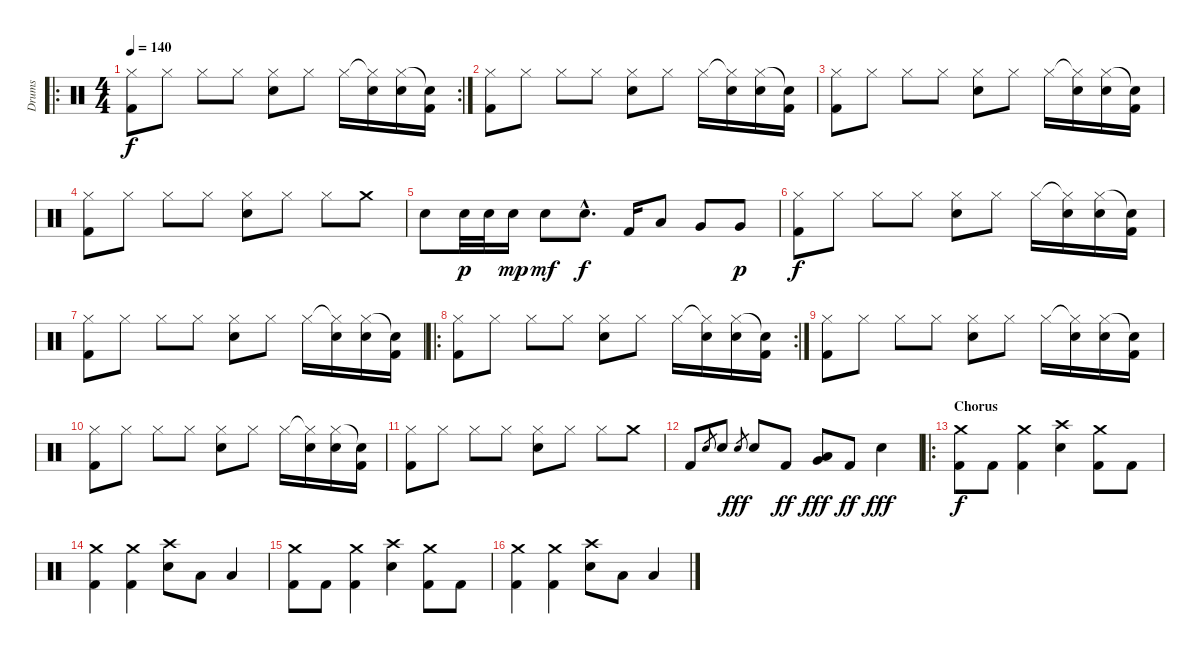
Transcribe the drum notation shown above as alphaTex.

\track ("Drums" "Drums") {instrument percussion}
\staff {score}
\articulation defaults
\ro
\rc 2
\ts (4 4)
\tempo 140
\clef neutral
\ks c
("Hi-Hat (closed)" "Kick (hit) 2").8{dy f} "Hi-Hat (closed)".8 "Hi-Hat (closed)".8 "Hi-Hat (closed)".8 ("Hi-Hat (closed)" "Electric Snare (hit)").8 "Hi-Hat (closed)".8 "Hi-Hat (closed)".16 ("Hi-Hat (closed)"{t} "Electric Snare (hit)").16 ("Hi-Hat (closed)" "Electric Snare (hit)").16 ("Snare (hit)"{t} "Kick (hit) 2").16 |
("Hi-Hat (closed)" "Kick (hit) 2").8 "Hi-Hat (closed)".8 "Hi-Hat (closed)".8 "Hi-Hat (closed)".8 ("Hi-Hat (closed)" "Electric Snare (hit)").8 "Hi-Hat (closed)".8 "Hi-Hat (closed)".16 ("Hi-Hat (closed)"{t} "Electric Snare (hit)").16 ("Hi-Hat (closed)" "Electric Snare (hit)").16 ("Snare (hit)"{t} "Kick (hit) 2").16 |
("Hi-Hat (closed)" "Kick (hit) 2").8 "Hi-Hat (closed)".8 "Hi-Hat (closed)".8 "Hi-Hat (closed)".8 ("Hi-Hat (closed)" "Electric Snare (hit)").8 "Hi-Hat (closed)".8 "Hi-Hat (closed)".16 ("Hi-Hat (closed)"{t} "Electric Snare (hit)").16 ("Hi-Hat (closed)" "Electric Snare (hit)").16 ("Snare (hit)"{t} "Kick (hit) 2").16 |
("Hi-Hat (closed)" "Kick (hit) 2").8 "Hi-Hat (closed)".8 "Hi-Hat (closed)".8 "Hi-Hat (closed)".8 ("Hi-Hat (closed)" "Electric Snare (hit)").8 "Hi-Hat (closed)".8 "Hi-Hat (closed)".8 "Crash medium (hit)".8 |
"Electric Snare (hit)".8 "Electric Snare (hit)".32{dy p} "Electric Snare (hit)".32 "Electric Snare (hit)".16{dy mp} "Electric Snare (hit)".8{dy mf} "Electric Snare (hit)"{hac}.8{d dy f} "Kick (hit) 2".16 "Low Tom (hit)".8 "Very Low Tom (hit)".8 "Very Low Tom (hit)".8{dy p} |
("Hi-Hat (closed)" "Kick (hit) 2").8{dy f} "Hi-Hat (closed)".8 "Hi-Hat (closed)".8 "Hi-Hat (closed)".8 ("Hi-Hat (closed)" "Electric Snare (hit)").8 "Hi-Hat (closed)".8 "Hi-Hat (closed)".16 ("Hi-Hat (closed)"{t} "Electric Snare (hit)").16 ("Hi-Hat (closed)" "Electric Snare (hit)").16 ("Snare (hit)"{t} "Kick (hit) 2").16 |
("Hi-Hat (closed)" "Kick (hit) 2").8 "Hi-Hat (closed)".8 "Hi-Hat (closed)".8 "Hi-Hat (closed)".8 ("Hi-Hat (closed)" "Electric Snare (hit)").8 "Hi-Hat (closed)".8 "Hi-Hat (closed)".16 ("Hi-Hat (closed)"{t} "Electric Snare (hit)").16 ("Hi-Hat (closed)" "Electric Snare (hit)").16 ("Snare (hit)"{t} "Kick (hit) 2").16 |
\ro
\rc 2
("Hi-Hat (closed)" "Kick (hit) 2").8 "Hi-Hat (closed)".8 "Hi-Hat (closed)".8 "Hi-Hat (closed)".8 ("Hi-Hat (closed)" "Electric Snare (hit)").8 "Hi-Hat (closed)".8 "Hi-Hat (closed)".16 ("Hi-Hat (closed)"{t} "Electric Snare (hit)").16 ("Hi-Hat (closed)" "Electric Snare (hit)").16 ("Snare (hit)"{t} "Kick (hit) 2").16 |
("Hi-Hat (closed)" "Kick (hit) 2").8 "Hi-Hat (closed)".8 "Hi-Hat (closed)".8 "Hi-Hat (closed)".8 ("Hi-Hat (closed)" "Electric Snare (hit)").8 "Hi-Hat (closed)".8 "Hi-Hat (closed)".16 ("Hi-Hat (closed)"{t} "Electric Snare (hit)").16 ("Hi-Hat (closed)" "Electric Snare (hit)").16 ("Snare (hit)"{t} "Kick (hit) 2").16 |
("Hi-Hat (closed)" "Kick (hit) 2").8 "Hi-Hat (closed)".8 "Hi-Hat (closed)".8 "Hi-Hat (closed)".8 ("Hi-Hat (closed)" "Electric Snare (hit)").8 "Hi-Hat (closed)".8 "Hi-Hat (closed)".16 ("Hi-Hat (closed)"{t} "Electric Snare (hit)").16 ("Hi-Hat (closed)" "Electric Snare (hit)").16 ("Snare (hit)"{t} "Kick (hit) 2").16 |
("Hi-Hat (closed)" "Kick (hit) 2").8 "Hi-Hat (closed)".8 "Hi-Hat (closed)".8 "Hi-Hat (closed)".8 ("Hi-Hat (closed)" "Electric Snare (hit)").8 "Hi-Hat (closed)".8 "Hi-Hat (closed)".8 "Crash medium (hit)".8 |
"Kick (hit) 2".8 "Electric Snare (hit)".8{gr} "Electric Snare (hit)".8 "Electric Snare (hit)".8{gr dy fff} "Electric Snare (hit)".8 "Kick (hit) 2".8{dy ff} ("Very Low Tom (hit)" "Low Tom (hit)").8{dy fff} "Kick (hit) 2".8{dy ff} "Electric Snare (hit)".4{dy fff} |
\ro
\section ("" "Chorus")
("Crash medium (hit)" "Kick (hit) 2").8{dy f} "Kick (hit) 2".8 ("Crash medium (hit)" "Kick (hit) 2").4 ("Crash high (hit)" "Electric Snare (hit)").4 ("Crash medium (hit)" "Kick (hit) 2").8 "Kick (hit) 2".8 |
("Crash medium (hit)" "Kick (hit) 2").4 ("Crash medium (hit)" "Kick (hit) 2").4 ("Crash high (hit)" "Electric Snare (hit)").8 "Low Tom (hit)".8 "Low Tom (hit)".4 |
("Crash medium (hit)" "Kick (hit) 2").8 "Kick (hit) 2".8 ("Crash medium (hit)" "Kick (hit) 2").4 ("Crash high (hit)" "Electric Snare (hit)").4 ("Crash medium (hit)" "Kick (hit) 2").8 "Kick (hit) 2".8 |
("Crash medium (hit)" "Kick (hit) 2").4 ("Crash medium (hit)" "Kick (hit) 2").4 ("Crash high (hit)" "Electric Snare (hit)").8 "Low Tom (hit)".8 "Low Tom (hit)".4
